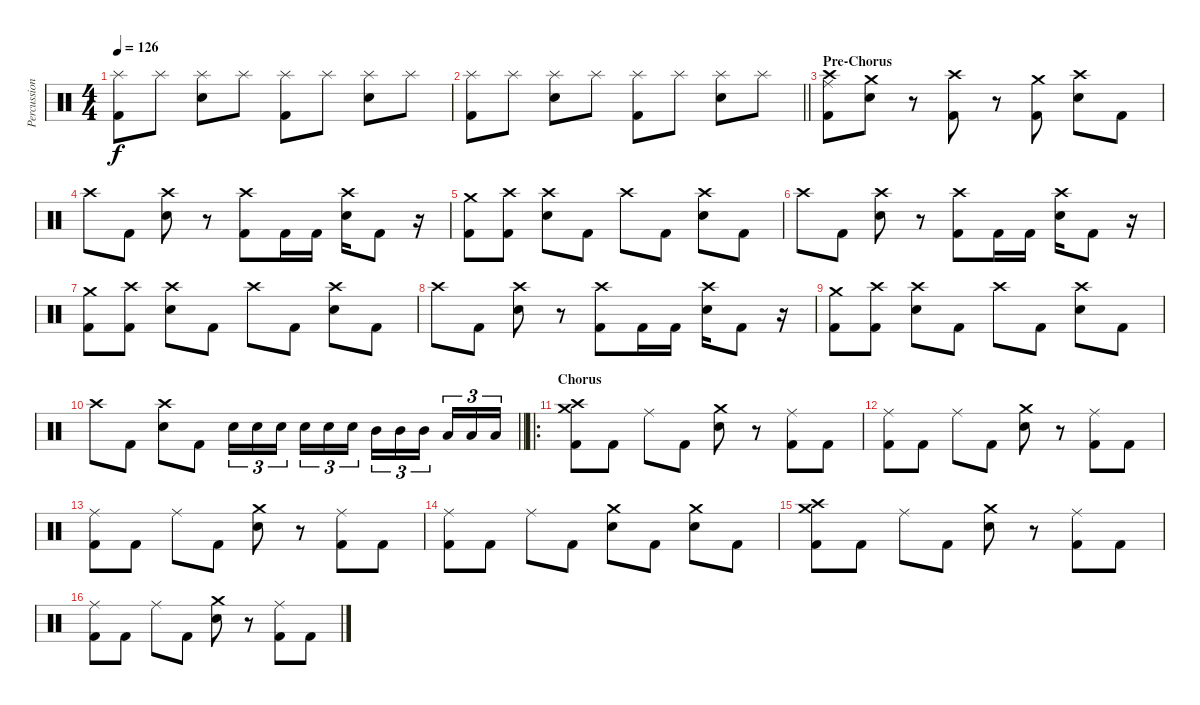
\track ("Percussion" "Percussion") {instrument percussion}
\staff {score}
\articulation defaults
\ts (4 4)
\tempo 126
\clef neutral
\ks c
("Splash (hit)" "Kick (hit) 2").8{dy f} "Splash (hit)".8 ("Splash (hit)" "Electric Snare (hit)").8 "Splash (hit)".8 ("Splash (hit)" "Kick (hit) 2").8 "Splash (hit)".8 ("Splash (hit)" "Electric Snare (hit)").8 "Splash (hit)".8 |
\barLineRight lightlight
("Splash (hit)" "Kick (hit) 2").8 "Splash (hit)".8 ("Splash (hit)" "Electric Snare (hit)").8 "Splash (hit)".8 ("Splash (hit)" "Kick (hit) 2").8 "Splash (hit)".8 ("Splash (hit)" "Electric Snare (hit)").8 "Splash (hit)".8 |
\section ("" "Pre-Chorus")
("Ride (middle)" "Crash high (hit)" "Kick (hit) 2").8 ("Crash medium (hit)" "Electric Snare (hit)").8 r.8 ("Crash high (hit)" "Kick (hit) 2").8 r.8 ("Crash medium (hit)" "Kick (hit) 2").8 ("Crash high (hit)" "Electric Snare (hit)").8 "Kick (hit) 2".8 |
"Crash high (hit)".8 "Kick (hit) 2".8 ("Crash high (hit)" "Electric Snare (hit)").8 r.8 ("Crash high (hit)" "Kick (hit) 2").8 "Kick (hit) 2".16 "Kick (hit) 2".16 ("Crash high (hit)" "Electric Snare (hit)").16 "Kick (hit) 2".8 r.16 |
("Crash medium (hit)" "Kick (hit) 2").8 ("Crash high (hit)" "Kick (hit) 2").8 ("Crash high (hit)" "Electric Snare (hit)").8 "Kick (hit) 2".8 "Crash high (hit)".8 "Kick (hit) 2".8 ("Crash high (hit)" "Electric Snare (hit)").8 "Kick (hit) 2".8 |
"Crash high (hit)".8 "Kick (hit) 2".8 ("Crash high (hit)" "Electric Snare (hit)").8 r.8 ("Crash high (hit)" "Kick (hit) 2").8 "Kick (hit) 2".16 "Kick (hit) 2".16 ("Crash high (hit)" "Electric Snare (hit)").16 "Kick (hit) 2".8 r.16 |
("Crash medium (hit)" "Kick (hit) 2").8 ("Crash high (hit)" "Kick (hit) 2").8 ("Crash high (hit)" "Electric Snare (hit)").8 "Kick (hit) 2".8 "Crash high (hit)".8 "Kick (hit) 2".8 ("Crash high (hit)" "Electric Snare (hit)").8 "Kick (hit) 2".8 |
"Crash high (hit)".8 "Kick (hit) 2".8 ("Crash high (hit)" "Electric Snare (hit)").8 r.8 ("Crash high (hit)" "Kick (hit) 2").8 "Kick (hit) 2".16 "Kick (hit) 2".16 ("Crash high (hit)" "Electric Snare (hit)").16 "Kick (hit) 2".8 r.16 |
("Crash medium (hit)" "Kick (hit) 2").8 ("Crash high (hit)" "Kick (hit) 2").8 ("Crash high (hit)" "Electric Snare (hit)").8 "Kick (hit) 2".8 "Crash high (hit)".8 "Kick (hit) 2".8 ("Crash high (hit)" "Electric Snare (hit)").8 "Kick (hit) 2".8 |
\barLineRight lightlight "Crash high (hit)".8 "Kick (hit) 2".8
("Crash high (hit)" "Electric Snare (hit)").8 "Kick (hit) 2".8 "Electric Snare (hit)".16{tu (3 2)} "Electric Snare (hit)".16{tu (3 2)} "Electric Snare (hit)".16{tu (3 2) beam splitsecondary} "Electric Snare (hit)".16{tu (3 2)} "Electric Snare (hit)".16{tu (3 2)} "Electric Snare (hit)".16{tu (3 2)} "Mid Tom (hit)".16{tu (3 2)} "Mid Tom (hit)".16{tu (3 2)} "Mid Tom (hit)".16{tu (3 2) beam splitsecondary} "Low Tom (hit)".16{tu (3 2)} "Low Tom (hit)".16{tu (3 2)} "Low Tom (hit)".16{tu (3 2)} |
\ro
\section ("" "Chorus")
("Crash high (hit)" "Crash medium (hit)" "Kick (hit) 2").8 "Kick (hit) 2".8 "Ride (middle)".8 "Kick (hit) 2".8 ("Crash medium (hit)" "Electric Snare (hit)").8 r.8 ("Ride (middle)" "Kick (hit) 2").8 "Kick (hit) 2".8 |
("Ride (middle)" "Kick (hit) 2").8 "Kick (hit) 2".8 "Ride (middle)".8 "Kick (hit) 2".8 ("Crash medium (hit)" "Electric Snare (hit)").8 r.8 ("Ride (middle)" "Kick (hit) 2").8 "Kick (hit) 2".8 |
("Ride (middle)" "Kick (hit) 2").8 "Kick (hit) 2".8 "Ride (middle)".8 "Kick (hit) 2".8 ("Crash medium (hit)" "Electric Snare (hit)").8 r.8 ("Ride (middle)" "Kick (hit) 2").8 "Kick (hit) 2".8 |
("Ride (middle)" "Kick (hit) 2").8 "Kick (hit) 2".8 "Ride (middle)".8 "Kick (hit) 2".8 ("Crash medium (hit)" "Electric Snare (hit)").8 "Kick (hit) 2".8 ("Crash medium (hit)" "Electric Snare (hit)").8 "Kick (hit) 2".8 |
("Crash high (hit)" "Crash medium (hit)" "Kick (hit) 2").8 "Kick (hit) 2".8 "Ride (middle)".8 "Kick (hit) 2".8 ("Crash medium (hit)" "Electric Snare (hit)").8 r.8 ("Ride (middle)" "Kick (hit) 2").8 "Kick (hit) 2".8 |
("Ride (middle)" "Kick (hit) 2").8 "Kick (hit) 2".8 "Ride (middle)".8 "Kick (hit) 2".8 ("Crash medium (hit)" "Electric Snare (hit)").8 r.8 ("Ride (middle)" "Kick (hit) 2").8 "Kick (hit) 2".8
